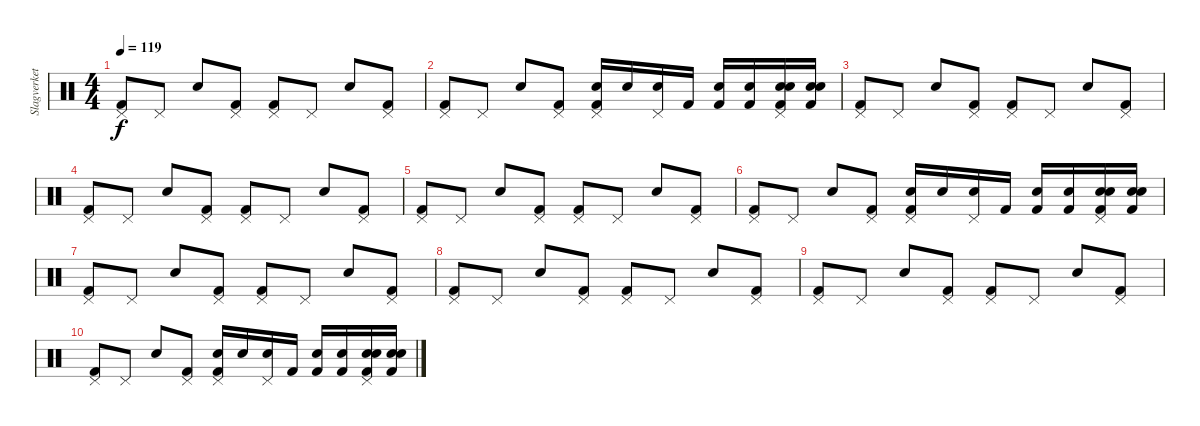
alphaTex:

\track ("Slagverket!" "Slagverket") {instrument percussion}
\staff {score}
\articulation defaults
\ts (4 4)
\tempo 119
\clef neutral
\ks c
("Pedal Hi-Hat (hit)" "Kick (hit) 2").8{dy f} "Pedal Hi-Hat (hit)".8 "Snare (hit) 2".8 ("Pedal Hi-Hat (hit)" "Kick (hit) 2").8 ("Pedal Hi-Hat (hit)" "Kick (hit) 2").8 "Pedal Hi-Hat (hit)".8 "Snare (hit) 2".8 ("Pedal Hi-Hat (hit)" "Kick (hit) 2").8 |
("Pedal Hi-Hat (hit)" "Kick (hit) 2").8 "Pedal Hi-Hat (hit)".8 "Snare (hit) 2".8 ("Pedal Hi-Hat (hit)" "Kick (hit) 2").8 ("Pedal Hi-Hat (hit)" "Electric Snare (hit)" "Kick (hit) 2").16 "Electric Snare (hit)".16 ("Pedal Hi-Hat (hit)" "Electric Snare (hit)").16 "Kick (hit) 2".16 ("Snare (hit) 2" "Kick (hit) 2").16 ("Electric Snare (hit)" "Kick (hit) 2").16 ("Pedal Hi-Hat (hit)" "Snare (hit) 2" "Electric Snare (hit)" "Kick (hit) 2").16 ("Electric Snare (hit)" "Electric Snare (hit)" "Kick (hit) 2").16 |
("Pedal Hi-Hat (hit)" "Kick (hit) 2").8 "Pedal Hi-Hat (hit)".8 "Snare (hit) 2".8 ("Pedal Hi-Hat (hit)" "Kick (hit) 2").8 ("Pedal Hi-Hat (hit)" "Kick (hit) 2").8 "Pedal Hi-Hat (hit)".8 "Snare (hit) 2".8 ("Pedal Hi-Hat (hit)" "Kick (hit) 2").8 |
("Pedal Hi-Hat (hit)" "Kick (hit) 2").8 "Pedal Hi-Hat (hit)".8 "Snare (hit) 2".8 ("Pedal Hi-Hat (hit)" "Kick (hit) 2").8 ("Pedal Hi-Hat (hit)" "Kick (hit) 2").8 "Pedal Hi-Hat (hit)".8 "Snare (hit) 2".8 ("Pedal Hi-Hat (hit)" "Kick (hit) 2").8 |
("Pedal Hi-Hat (hit)" "Kick (hit) 2").8 "Pedal Hi-Hat (hit)".8 "Snare (hit) 2".8 ("Pedal Hi-Hat (hit)" "Kick (hit) 2").8 ("Pedal Hi-Hat (hit)" "Kick (hit) 2").8 "Pedal Hi-Hat (hit)".8 "Snare (hit) 2".8 ("Pedal Hi-Hat (hit)" "Kick (hit) 2").8 |
("Pedal Hi-Hat (hit)" "Kick (hit) 2").8 "Pedal Hi-Hat (hit)".8 "Snare (hit) 2".8 ("Pedal Hi-Hat (hit)" "Kick (hit) 2").8 ("Pedal Hi-Hat (hit)" "Electric Snare (hit)" "Kick (hit) 2").16 "Electric Snare (hit)".16 ("Pedal Hi-Hat (hit)" "Electric Snare (hit)").16 "Kick (hit) 2".16 ("Snare (hit) 2" "Kick (hit) 2").16 ("Electric Snare (hit)" "Kick (hit) 2").16 ("Pedal Hi-Hat (hit)" "Snare (hit) 2" "Electric Snare (hit)" "Kick (hit) 2").16 ("Electric Snare (hit)" "Electric Snare (hit)" "Kick (hit) 2").16 |
("Pedal Hi-Hat (hit)" "Kick (hit) 2").8 "Pedal Hi-Hat (hit)".8 "Snare (hit) 2".8 ("Pedal Hi-Hat (hit)" "Kick (hit) 2").8 ("Pedal Hi-Hat (hit)" "Kick (hit) 2").8 "Pedal Hi-Hat (hit)".8 "Snare (hit) 2".8 ("Pedal Hi-Hat (hit)" "Kick (hit) 2").8 |
("Pedal Hi-Hat (hit)" "Kick (hit) 2").8 "Pedal Hi-Hat (hit)".8 "Snare (hit) 2".8 ("Pedal Hi-Hat (hit)" "Kick (hit) 2").8 ("Pedal Hi-Hat (hit)" "Kick (hit) 2").8 "Pedal Hi-Hat (hit)".8 "Snare (hit) 2".8 ("Pedal Hi-Hat (hit)" "Kick (hit) 2").8 |
("Pedal Hi-Hat (hit)" "Kick (hit) 2").8 "Pedal Hi-Hat (hit)".8 "Snare (hit) 2".8 ("Pedal Hi-Hat (hit)" "Kick (hit) 2").8 ("Pedal Hi-Hat (hit)" "Kick (hit) 2").8 "Pedal Hi-Hat (hit)".8 "Snare (hit) 2".8 ("Pedal Hi-Hat (hit)" "Kick (hit) 2").8 |
("Pedal Hi-Hat (hit)" "Kick (hit) 2").8 "Pedal Hi-Hat (hit)".8 "Snare (hit) 2".8 ("Pedal Hi-Hat (hit)" "Kick (hit) 2").8 ("Pedal Hi-Hat (hit)" "Electric Snare (hit)" "Kick (hit) 2").16 "Electric Snare (hit)".16 ("Pedal Hi-Hat (hit)" "Electric Snare (hit)").16 "Kick (hit) 2".16 ("Snare (hit) 2" "Kick (hit) 2").16 ("Electric Snare (hit)" "Kick (hit) 2").16 ("Pedal Hi-Hat (hit)" "Snare (hit) 2" "Electric Snare (hit)" "Kick (hit) 2").16 ("Electric Snare (hit)" "Electric Snare (hit)" "Kick (hit) 2").16
